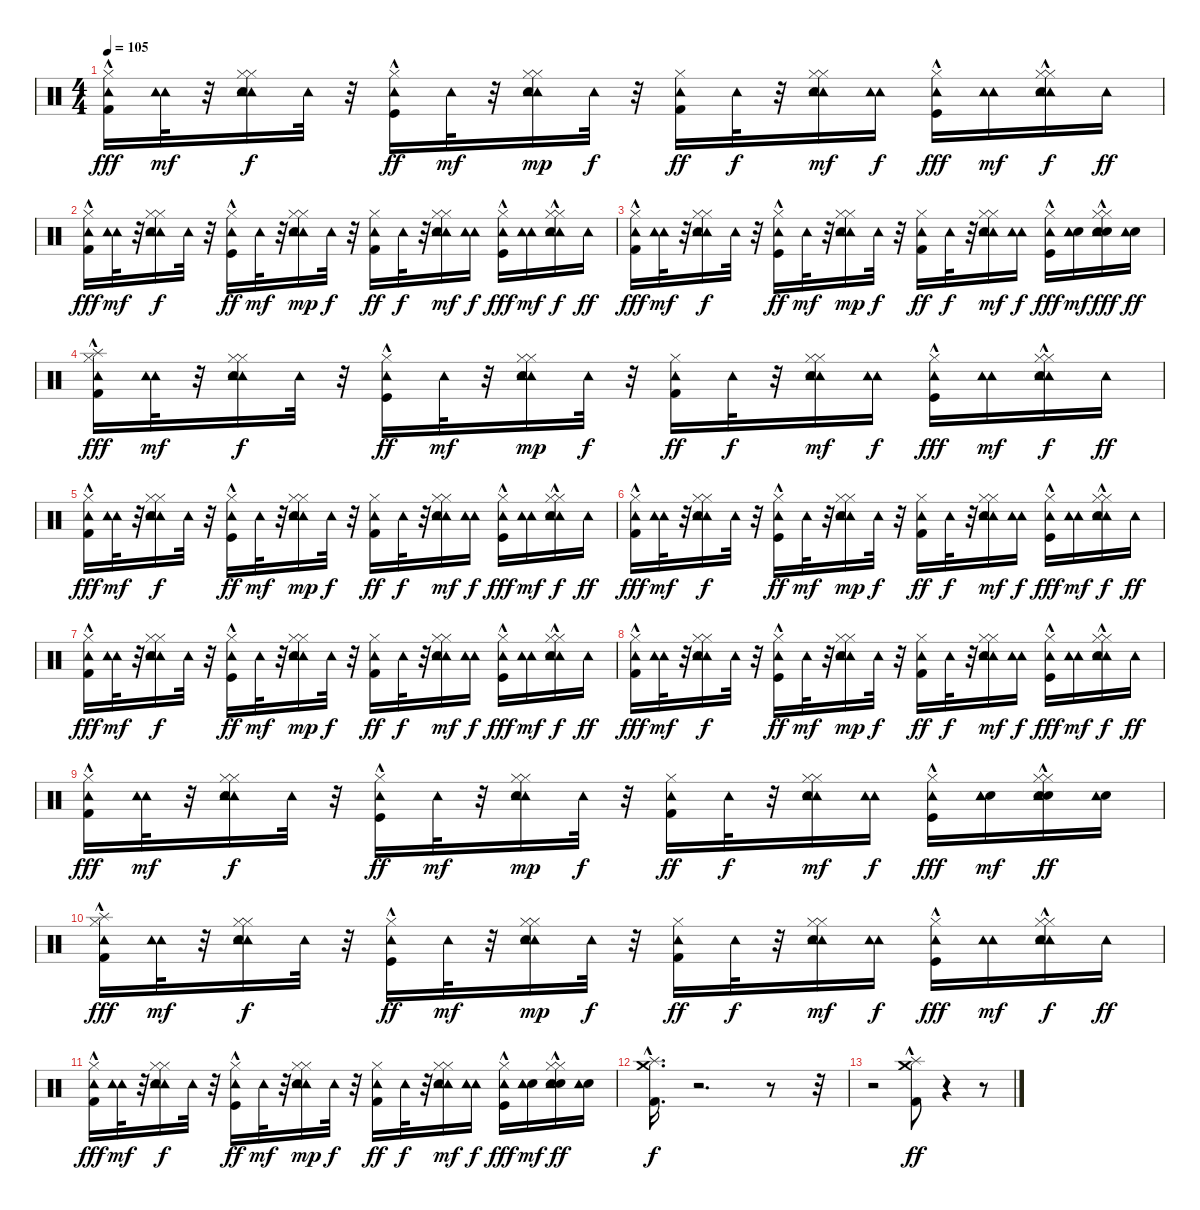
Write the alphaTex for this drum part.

\track "" {instrument percussion}
\staff {score}
\articulation defaults
\ts (4 4)
\tempo 105
\clef neutral
\ks c
("Kick (hit) 2"{hac} "Hi-Hat (closed)" "Tambourine (hit)").16{dy fff} ("Tambourine (hit)" "Tambourine (hit)").32{dy mf} r.32 ("Hi-Hat (closed)" "Tambourine (hit)" "Hi-Hat (closed)" "Snare (hit) 2" "Tambourine (hit)" "Tambourine (hit)").16{dy f} "Tambourine (hit)".32 r.32 ("Kick (hit)"{hac} "Hi-Hat (closed)" "Tambourine (hit)").16{dy ff} "Tambourine (hit)".32{dy mf} r.32 ("Tambourine (hit)" "Hi-Hat (closed)" "Tambourine (hit)" "Hi-Hat (closed)" "Snare (hit) 2").16{dy mp} "Tambourine (hit)".32{dy f} r.32 ("Tambourine (hit)" "Hi-Hat (closed)" "Kick (hit) 2").16{dy ff} "Tambourine (hit)".32{dy f} r.32 ("Tambourine (hit)" "Hi-Hat (closed)" "Hi-Hat (closed)" "Tambourine (hit)" "Snare (hit) 2").16{dy mf} ("Tambourine (hit)" "Tambourine (hit)").16{dy f} ("Tambourine (hit)" "Kick (hit)"{hac} "Hi-Hat (closed)").16{dy fff} ("Tambourine (hit)" "Tambourine (hit)").16{dy mf} ("Hi-Hat (closed)"{hac} "Tambourine (hit)" "Hi-Hat (closed)"{hac} "Snare (hit) 2" "Tambourine (hit)").16{dy f} "Tambourine (hit)".16{dy ff} |
("Kick (hit) 2"{hac} "Hi-Hat (closed)" "Tambourine (hit)").16{dy fff} ("Tambourine (hit)" "Tambourine (hit)").32{dy mf} r.32 ("Hi-Hat (closed)" "Tambourine (hit)" "Hi-Hat (closed)" "Snare (hit) 2" "Tambourine (hit)" "Tambourine (hit)").16{dy f} "Tambourine (hit)".32 r.32 ("Kick (hit)"{hac} "Hi-Hat (closed)" "Tambourine (hit)").16{dy ff} "Tambourine (hit)".32{dy mf} r.32 ("Tambourine (hit)" "Hi-Hat (closed)" "Tambourine (hit)" "Hi-Hat (closed)" "Snare (hit) 2").16{dy mp} "Tambourine (hit)".32{dy f} r.32 ("Tambourine (hit)" "Hi-Hat (closed)" "Kick (hit) 2").16{dy ff} "Tambourine (hit)".32{dy f} r.32 ("Tambourine (hit)" "Hi-Hat (closed)" "Hi-Hat (closed)" "Tambourine (hit)" "Snare (hit) 2").16{dy mf} ("Tambourine (hit)" "Tambourine (hit)").16{dy f} ("Tambourine (hit)" "Kick (hit)"{hac} "Hi-Hat (closed)").16{dy fff} ("Tambourine (hit)" "Tambourine (hit)").16{dy mf} ("Hi-Hat (closed)"{hac} "Tambourine (hit)" "Hi-Hat (closed)"{hac} "Snare (hit) 2" "Tambourine (hit)").16{dy f} "Tambourine (hit)".16{dy ff} |
("Kick (hit) 2"{hac} "Hi-Hat (closed)" "Tambourine (hit)").16{dy fff} ("Tambourine (hit)" "Tambourine (hit)").32{dy mf} r.32 ("Hi-Hat (closed)" "Tambourine (hit)" "Hi-Hat (closed)" "Snare (hit) 2" "Tambourine (hit)" "Tambourine (hit)").16{dy f} "Tambourine (hit)".32 r.32 ("Kick (hit)"{hac} "Hi-Hat (closed)" "Tambourine (hit)").16{dy ff} "Tambourine (hit)".32{dy mf} r.32 ("Tambourine (hit)" "Hi-Hat (closed)" "Tambourine (hit)" "Hi-Hat (closed)" "Snare (hit) 2").16{dy mp} "Tambourine (hit)".32{dy f} r.32 ("Tambourine (hit)" "Hi-Hat (closed)" "Kick (hit) 2").16{dy ff} "Tambourine (hit)".32{dy f} r.32 ("Tambourine (hit)" "Hi-Hat (closed)" "Hi-Hat (closed)" "Tambourine (hit)" "Snare (hit) 2").16{dy mf} ("Tambourine (hit)" "Tambourine (hit)").16{dy f} ("Tambourine (hit)" "Kick (hit)"{hac} "Hi-Hat (closed)").16{dy fff} ("Snare (hit) 2" "Tambourine (hit)" "Tambourine (hit)").16{dy mf} ("Snare (hit) 2" "Hi-Hat (closed)"{hac} "Tambourine (hit)" "Hi-Hat (closed)"{hac} "Snare (hit) 2" "Tambourine (hit)").16{dy fff} ("Snare (hit) 2" "Tambourine (hit)").16{dy ff} |
("Splash (hit)" "Kick (hit) 2"{hac} "Hi-Hat (closed)" "Tambourine (hit)").16{dy fff} ("Tambourine (hit)" "Tambourine (hit)").32{dy mf} r.32 ("Hi-Hat (closed)" "Tambourine (hit)" "Hi-Hat (closed)" "Snare (hit) 2" "Tambourine (hit)" "Tambourine (hit)").16{dy f} "Tambourine (hit)".32 r.32 ("Kick (hit)"{hac} "Hi-Hat (closed)" "Tambourine (hit)").16{dy ff} "Tambourine (hit)".32{dy mf} r.32 ("Tambourine (hit)" "Hi-Hat (closed)" "Tambourine (hit)" "Hi-Hat (closed)" "Snare (hit) 2").16{dy mp} "Tambourine (hit)".32{dy f} r.32 ("Tambourine (hit)" "Hi-Hat (closed)" "Kick (hit) 2").16{dy ff} "Tambourine (hit)".32{dy f} r.32 ("Tambourine (hit)" "Hi-Hat (closed)" "Hi-Hat (closed)" "Tambourine (hit)" "Snare (hit) 2").16{dy mf} ("Tambourine (hit)" "Tambourine (hit)").16{dy f} ("Tambourine (hit)" "Kick (hit)"{hac} "Hi-Hat (closed)").16{dy fff} ("Tambourine (hit)" "Tambourine (hit)").16{dy mf} ("Hi-Hat (closed)"{hac} "Tambourine (hit)" "Hi-Hat (closed)"{hac} "Snare (hit) 2" "Tambourine (hit)").16{dy f} "Tambourine (hit)".16{dy ff} |
("Kick (hit) 2"{hac} "Hi-Hat (closed)" "Tambourine (hit)").16{dy fff} ("Tambourine (hit)" "Tambourine (hit)").32{dy mf} r.32 ("Hi-Hat (closed)" "Tambourine (hit)" "Hi-Hat (closed)" "Snare (hit) 2" "Tambourine (hit)" "Tambourine (hit)").16{dy f} "Tambourine (hit)".32 r.32 ("Kick (hit)"{hac} "Hi-Hat (closed)" "Tambourine (hit)").16{dy ff} "Tambourine (hit)".32{dy mf} r.32 ("Tambourine (hit)" "Hi-Hat (closed)" "Tambourine (hit)" "Hi-Hat (closed)" "Snare (hit) 2").16{dy mp} "Tambourine (hit)".32{dy f} r.32 ("Tambourine (hit)" "Hi-Hat (closed)" "Kick (hit) 2").16{dy ff} "Tambourine (hit)".32{dy f} r.32 ("Tambourine (hit)" "Hi-Hat (closed)" "Hi-Hat (closed)" "Tambourine (hit)" "Snare (hit) 2").16{dy mf} ("Tambourine (hit)" "Tambourine (hit)").16{dy f} ("Tambourine (hit)" "Kick (hit)"{hac} "Hi-Hat (closed)").16{dy fff} ("Tambourine (hit)" "Tambourine (hit)").16{dy mf} ("Hi-Hat (closed)"{hac} "Tambourine (hit)" "Hi-Hat (closed)"{hac} "Snare (hit) 2" "Tambourine (hit)").16{dy f} "Tambourine (hit)".16{dy ff} |
("Kick (hit) 2"{hac} "Hi-Hat (closed)" "Tambourine (hit)").16{dy fff} ("Tambourine (hit)" "Tambourine (hit)").32{dy mf} r.32 ("Hi-Hat (closed)" "Tambourine (hit)" "Hi-Hat (closed)" "Snare (hit) 2" "Tambourine (hit)" "Tambourine (hit)").16{dy f} "Tambourine (hit)".32 r.32 ("Kick (hit)"{hac} "Hi-Hat (closed)" "Tambourine (hit)").16{dy ff} "Tambourine (hit)".32{dy mf} r.32 ("Tambourine (hit)" "Hi-Hat (closed)" "Tambourine (hit)" "Hi-Hat (closed)" "Snare (hit) 2").16{dy mp} "Tambourine (hit)".32{dy f} r.32 ("Tambourine (hit)" "Hi-Hat (closed)" "Kick (hit) 2").16{dy ff} "Tambourine (hit)".32{dy f} r.32 ("Tambourine (hit)" "Hi-Hat (closed)" "Hi-Hat (closed)" "Tambourine (hit)" "Snare (hit) 2").16{dy mf} ("Tambourine (hit)" "Tambourine (hit)").16{dy f} ("Tambourine (hit)" "Kick (hit)"{hac} "Hi-Hat (closed)").16{dy fff} ("Tambourine (hit)" "Tambourine (hit)").16{dy mf} ("Hi-Hat (closed)"{hac} "Tambourine (hit)" "Hi-Hat (closed)"{hac} "Snare (hit) 2" "Tambourine (hit)").16{dy f} "Tambourine (hit)".16{dy ff} |
("Kick (hit) 2"{hac} "Hi-Hat (closed)" "Tambourine (hit)").16{dy fff} ("Tambourine (hit)" "Tambourine (hit)").32{dy mf} r.32 ("Hi-Hat (closed)" "Tambourine (hit)" "Hi-Hat (closed)" "Snare (hit) 2" "Tambourine (hit)" "Tambourine (hit)").16{dy f} "Tambourine (hit)".32 r.32 ("Kick (hit)"{hac} "Hi-Hat (closed)" "Tambourine (hit)").16{dy ff} "Tambourine (hit)".32{dy mf} r.32 ("Tambourine (hit)" "Hi-Hat (closed)" "Tambourine (hit)" "Hi-Hat (closed)" "Snare (hit) 2").16{dy mp} "Tambourine (hit)".32{dy f} r.32 ("Tambourine (hit)" "Hi-Hat (closed)" "Kick (hit) 2").16{dy ff} "Tambourine (hit)".32{dy f} r.32 ("Tambourine (hit)" "Hi-Hat (closed)" "Hi-Hat (closed)" "Tambourine (hit)" "Snare (hit) 2").16{dy mf} ("Tambourine (hit)" "Tambourine (hit)").16{dy f} ("Tambourine (hit)" "Kick (hit)"{hac} "Hi-Hat (closed)").16{dy fff} ("Tambourine (hit)" "Tambourine (hit)").16{dy mf} ("Hi-Hat (closed)"{hac} "Tambourine (hit)" "Hi-Hat (closed)"{hac} "Snare (hit) 2" "Tambourine (hit)").16{dy f} "Tambourine (hit)".16{dy ff} |
("Kick (hit) 2"{hac} "Hi-Hat (closed)" "Tambourine (hit)").16{dy fff} ("Tambourine (hit)" "Tambourine (hit)").32{dy mf} r.32 ("Hi-Hat (closed)" "Tambourine (hit)" "Hi-Hat (closed)" "Snare (hit) 2" "Tambourine (hit)" "Tambourine (hit)").16{dy f} "Tambourine (hit)".32 r.32 ("Kick (hit)"{hac} "Hi-Hat (closed)" "Tambourine (hit)").16{dy ff} "Tambourine (hit)".32{dy mf} r.32 ("Tambourine (hit)" "Hi-Hat (closed)" "Tambourine (hit)" "Hi-Hat (closed)" "Snare (hit) 2").16{dy mp} "Tambourine (hit)".32{dy f} r.32 ("Tambourine (hit)" "Hi-Hat (closed)" "Kick (hit) 2").16{dy ff} "Tambourine (hit)".32{dy f} r.32 ("Tambourine (hit)" "Hi-Hat (closed)" "Hi-Hat (closed)" "Tambourine (hit)" "Snare (hit) 2").16{dy mf} ("Tambourine (hit)" "Tambourine (hit)").16{dy f} ("Tambourine (hit)" "Kick (hit)"{hac} "Hi-Hat (closed)").16{dy fff} ("Tambourine (hit)" "Tambourine (hit)").16{dy mf} ("Hi-Hat (closed)"{hac} "Tambourine (hit)" "Hi-Hat (closed)"{hac} "Snare (hit) 2" "Tambourine (hit)").16{dy f} "Tambourine (hit)".16{dy ff} |
("Kick (hit) 2"{hac} "Hi-Hat (closed)" "Tambourine (hit)").16{dy fff} ("Tambourine (hit)" "Tambourine (hit)").32{dy mf} r.32 ("Hi-Hat (closed)" "Tambourine (hit)" "Hi-Hat (closed)" "Snare (hit) 2" "Tambourine (hit)" "Tambourine (hit)").16{dy f} "Tambourine (hit)".32 r.32 ("Kick (hit)"{hac} "Hi-Hat (closed)" "Tambourine (hit)").16{dy ff} "Tambourine (hit)".32{dy mf} r.32 ("Tambourine (hit)" "Hi-Hat (closed)" "Tambourine (hit)" "Hi-Hat (closed)" "Snare (hit) 2").16{dy mp} "Tambourine (hit)".32{dy f} r.32 ("Tambourine (hit)" "Hi-Hat (closed)" "Kick (hit) 2").16{dy ff} "Tambourine (hit)".32{dy f} r.32 ("Tambourine (hit)" "Hi-Hat (closed)" "Hi-Hat (closed)" "Tambourine (hit)" "Snare (hit) 2").16{dy mf} ("Tambourine (hit)" "Tambourine (hit)").16{dy f} ("Tambourine (hit)" "Kick (hit)"{hac} "Hi-Hat (closed)").16{dy fff} ("Snare (hit) 2" "Tambourine (hit)" "Tambourine (hit)").16{dy mf} ("Snare (hit) 2" "Hi-Hat (closed)"{hac} "Tambourine (hit)" "Hi-Hat (closed)"{hac} "Snare (hit) 2" "Tambourine (hit)").16{dy ff} ("Snare (hit) 2" "Tambourine (hit)").16 |
("Splash (hit)" "Kick (hit) 2"{hac} "Hi-Hat (closed)" "Tambourine (hit)").16{dy fff} ("Tambourine (hit)" "Tambourine (hit)").32{dy mf} r.32 ("Hi-Hat (closed)" "Tambourine (hit)" "Hi-Hat (closed)" "Snare (hit) 2" "Tambourine (hit)" "Tambourine (hit)").16{dy f} "Tambourine (hit)".32 r.32 ("Kick (hit)"{hac} "Hi-Hat (closed)" "Tambourine (hit)").16{dy ff} "Tambourine (hit)".32{dy mf} r.32 ("Tambourine (hit)" "Hi-Hat (closed)" "Tambourine (hit)" "Hi-Hat (closed)" "Snare (hit) 2").16{dy mp} "Tambourine (hit)".32{dy f} r.32 ("Tambourine (hit)" "Hi-Hat (closed)" "Kick (hit) 2").16{dy ff} "Tambourine (hit)".32{dy f} r.32 ("Tambourine (hit)" "Hi-Hat (closed)" "Hi-Hat (closed)" "Tambourine (hit)" "Snare (hit) 2").16{dy mf} ("Tambourine (hit)" "Tambourine (hit)").16{dy f} ("Tambourine (hit)" "Kick (hit)"{hac} "Hi-Hat (closed)").16{dy fff} ("Tambourine (hit)" "Tambourine (hit)").16{dy mf} ("Hi-Hat (closed)"{hac} "Tambourine (hit)" "Hi-Hat (closed)"{hac} "Snare (hit) 2" "Tambourine (hit)").16{dy f} "Tambourine (hit)".16{dy ff} |
("Kick (hit) 2"{hac} "Hi-Hat (closed)" "Tambourine (hit)").16{dy fff} ("Tambourine (hit)" "Tambourine (hit)").32{dy mf} r.32 ("Hi-Hat (closed)" "Tambourine (hit)" "Hi-Hat (closed)" "Snare (hit) 2" "Tambourine (hit)" "Tambourine (hit)").16{dy f} "Tambourine (hit)".32 r.32 ("Kick (hit)"{hac} "Hi-Hat (closed)" "Tambourine (hit)").16{dy ff} "Tambourine (hit)".32{dy mf} r.32 ("Tambourine (hit)" "Hi-Hat (closed)" "Tambourine (hit)" "Hi-Hat (closed)" "Snare (hit) 2").16{dy mp} "Tambourine (hit)".32{dy f} r.32 ("Tambourine (hit)" "Hi-Hat (closed)" "Kick (hit) 2").16{dy ff} "Tambourine (hit)".32{dy f} r.32 ("Tambourine (hit)" "Hi-Hat (closed)" "Hi-Hat (closed)" "Tambourine (hit)" "Snare (hit) 2").16{dy mf} ("Tambourine (hit)" "Tambourine (hit)").16{dy f} ("Tambourine (hit)" "Kick (hit)"{hac} "Hi-Hat (closed)").16{dy fff} ("Snare (hit) 2" "Tambourine (hit)" "Tambourine (hit)").16{dy mf} ("Snare (hit) 2" "Hi-Hat (closed)"{hac} "Tambourine (hit)" "Hi-Hat (closed)"{hac} "Snare (hit) 2" "Tambourine (hit)").16{dy ff} ("Snare (hit) 2" "Tambourine (hit)").16 |
("Crash medium (hit)"{hac} "Splash (hit)" "Kick (hit) 2"{hac}).16{d dy f} r.2{d} r.8 r.32 |
r.2 ("Splash (hit)" "Crash medium (hit)" "Kick (hit) 2"{hac}).8{dy ff} r.4 r.8
